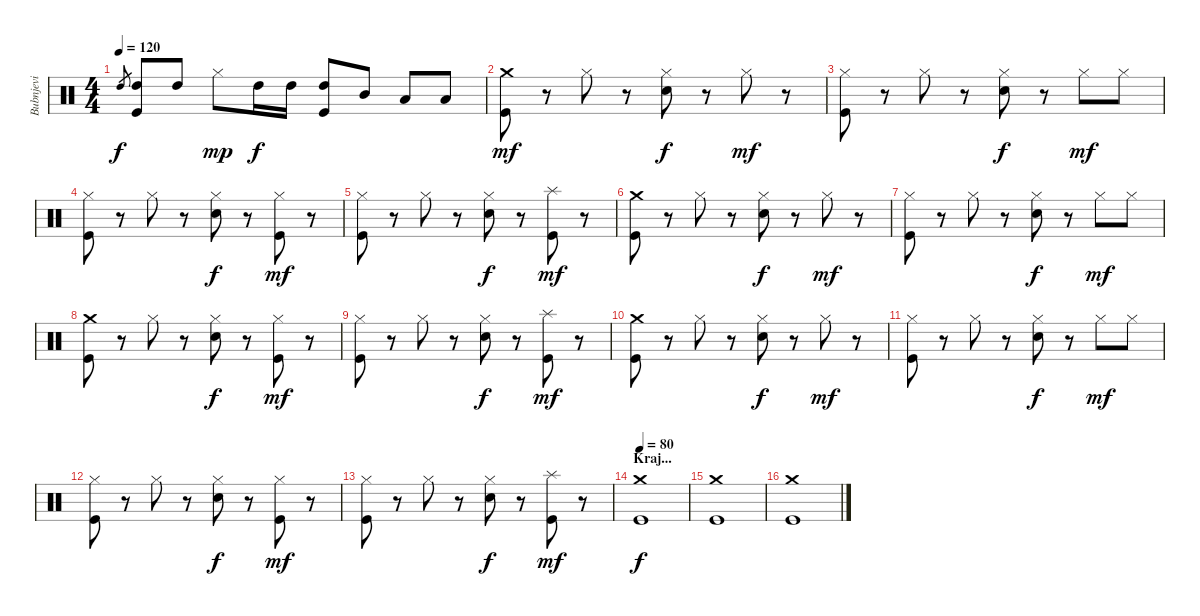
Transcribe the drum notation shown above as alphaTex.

\track ("Bubnjevi" "Bubnjevi") {instrument percussion}
\staff {score}
\articulation defaults
\ts (4 4)
\tempo 120
\clef neutral
\ks c "High Tom (hit)".8{gr dy f}
("High Tom (hit)" "Kick (hit)").8 "High Tom (hit)".8 "Hi-Hat (closed)".8{dy mp} "High Tom (hit)".16{dy f} "High Tom (hit)".16 ("High Tom (hit)" "Kick (hit)").8 "Mid Tom (hit)".8 "Low Tom (hit)".8 "Low Tom (hit)".8 |
("Crash medium (hit)" "Kick (hit)").8{dy mf} r.8 "Hi-Hat (closed)".8 r.8 ("Hi-Hat (closed)" "Snare (hit) 2").8{dy f} r.8 "Hi-Hat (closed)".8{dy mf} r.8 |
("Hi-Hat (closed)" "Kick (hit)").8 r.8 "Hi-Hat (closed)".8 r.8 ("Hi-Hat (closed)" "Snare (hit) 2").8{dy f} r.8 "Hi-Hat (closed)".8{dy mf} "Hi-Hat (closed)".8 |
("Hi-Hat (closed)" "Kick (hit)").8 r.8 "Hi-Hat (closed)".8 r.8 ("Hi-Hat (closed)" "Snare (hit) 2").8{dy f} r.8 ("Hi-Hat (closed)" "Kick (hit)").8{dy mf} r.8 |
("Hi-Hat (closed)" "Kick (hit)").8 r.8 "Hi-Hat (closed)".8 r.8 ("Hi-Hat (closed)" "Snare (hit) 2").8{dy f} r.8 ("Splash (hit)" "Kick (hit)").8{dy mf} r.8 |
("Crash medium (hit)" "Kick (hit)").8 r.8 "Hi-Hat (closed)".8 r.8 ("Hi-Hat (closed)" "Snare (hit) 2").8{dy f} r.8 "Hi-Hat (closed)".8{dy mf} r.8 |
("Hi-Hat (closed)" "Kick (hit)").8 r.8 "Hi-Hat (closed)".8 r.8 ("Hi-Hat (closed)" "Snare (hit) 2").8{dy f} r.8 "Hi-Hat (closed)".8{dy mf} "Hi-Hat (closed)".8 |
("Crash medium (hit)" "Kick (hit)").8 r.8 "Hi-Hat (closed)".8 r.8 ("Hi-Hat (closed)" "Snare (hit) 2").8{dy f} r.8 ("Hi-Hat (closed)" "Kick (hit)").8{dy mf} r.8 |
("Hi-Hat (closed)" "Kick (hit)").8 r.8 "Hi-Hat (closed)".8 r.8 ("Hi-Hat (closed)" "Snare (hit) 2").8{dy f} r.8 ("Splash (hit)" "Kick (hit)").8{dy mf} r.8 |
("Crash medium (hit)" "Kick (hit)").8 r.8 "Hi-Hat (closed)".8 r.8 ("Hi-Hat (closed)" "Snare (hit) 2").8{dy f} r.8 "Hi-Hat (closed)".8{dy mf} r.8 |
("Hi-Hat (closed)" "Kick (hit)").8 r.8 "Hi-Hat (closed)".8 r.8 ("Hi-Hat (closed)" "Snare (hit) 2").8{dy f} r.8 "Hi-Hat (closed)".8{dy mf} "Hi-Hat (closed)".8 |
("Hi-Hat (closed)" "Kick (hit)").8 r.8 "Hi-Hat (closed)".8 r.8 ("Hi-Hat (closed)" "Snare (hit) 2").8{dy f} r.8 ("Hi-Hat (closed)" "Kick (hit)").8{dy mf} r.8 |
("Hi-Hat (closed)" "Kick (hit)").8 r.8 "Hi-Hat (closed)".8 r.8 ("Hi-Hat (closed)" "Snare (hit) 2").8{dy f} r.8 ("Splash (hit)" "Kick (hit)").8{dy mf} r.8 |
\section ("" "Kraj...")
\tempo 80
("Crash medium (hit)" "Kick (hit)").1{dy f} |
("Crash medium (hit)" "Kick (hit)").1 |
("Crash medium (hit)" "Kick (hit)").1
